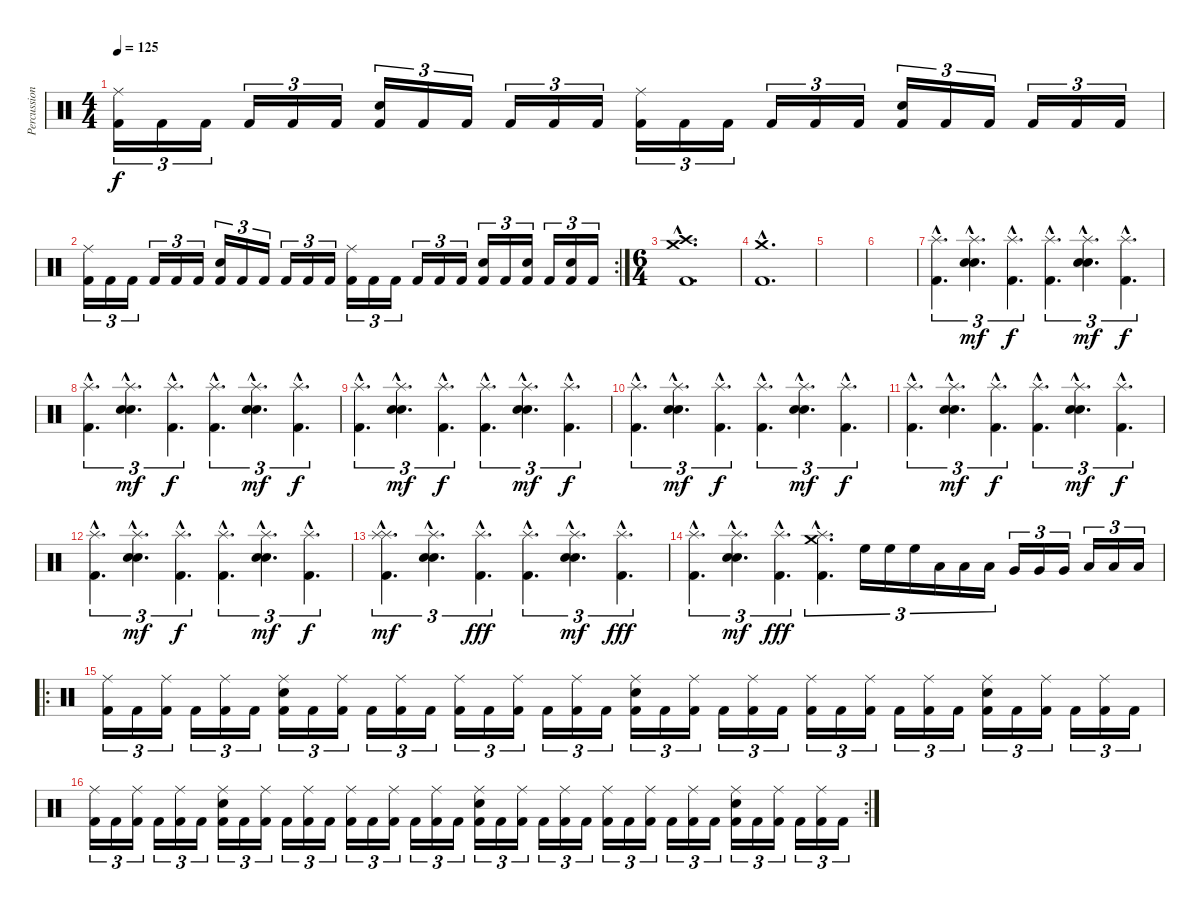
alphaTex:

\track ("Percussions" "Percussion") {instrument percussion}
\staff {score}
\articulation defaults
\ts (4 4)
\tempo 125
\clef neutral
\ks c
("Kick (hit) 2" "Ride (middle)").16{tu (3 2) dy f} "Kick (hit) 2".16{tu (3 2)} "Kick (hit) 2".16{tu (3 2)} "Kick (hit) 2".16{tu (3 2)} "Kick (hit) 2".16{tu (3 2)} "Kick (hit) 2".16{tu (3 2)} ("Kick (hit) 2" "Snare (hit) 2").16{tu (3 2)} "Kick (hit) 2".16{tu (3 2)} "Kick (hit) 2".16{tu (3 2)} "Kick (hit) 2".16{tu (3 2)} "Kick (hit) 2".16{tu (3 2)} "Kick (hit) 2".16{tu (3 2)} ("Kick (hit) 2" "Ride (middle)").16{tu (3 2)} "Kick (hit) 2".16{tu (3 2)} "Kick (hit) 2".16{tu (3 2)} "Kick (hit) 2".16{tu (3 2)} "Kick (hit) 2".16{tu (3 2)} "Kick (hit) 2".16{tu (3 2)} ("Kick (hit) 2" "Snare (hit) 2").16{tu (3 2)} "Kick (hit) 2".16{tu (3 2)} "Kick (hit) 2".16{tu (3 2)} "Kick (hit) 2".16{tu (3 2)} "Kick (hit) 2".16{tu (3 2)} "Kick (hit) 2".16{tu (3 2)} |
\rc 2
("Kick (hit) 2" "Ride (middle)").16{tu (3 2)} "Kick (hit) 2".16{tu (3 2)} "Kick (hit) 2".16{tu (3 2)} "Kick (hit) 2".16{tu (3 2)} "Kick (hit) 2".16{tu (3 2)} "Kick (hit) 2".16{tu (3 2)} ("Kick (hit) 2" "Snare (hit) 2").16{tu (3 2)} "Kick (hit) 2".16{tu (3 2)} "Kick (hit) 2".16{tu (3 2)} "Kick (hit) 2".16{tu (3 2)} "Kick (hit) 2".16{tu (3 2)} "Kick (hit) 2".16{tu (3 2)} ("Kick (hit) 2" "Ride (middle)").16{tu (3 2)} "Kick (hit) 2".16{tu (3 2)} "Kick (hit) 2".16{tu (3 2)} "Kick (hit) 2".16{tu (3 2)} "Kick (hit) 2".16{tu (3 2)} "Kick (hit) 2".16{tu (3 2)} ("Kick (hit) 2" "Snare (hit) 2").16{tu (3 2)} "Kick (hit) 2".16{tu (3 2)} ("Kick (hit) 2" "Snare (hit) 2").16{tu (3 2)} "Kick (hit) 2".16{tu (3 2)} ("Kick (hit) 2" "Snare (hit) 2").16{tu (3 2)} "Kick (hit) 2".16{tu (3 2)} |
\ts (6 4)
("Crash medium (hit)"{hac} "Crash high (hit)"{hac} "Kick (hit) 2"{hac}).1{d} |
("Kick (hit) 2"{hac} "Crash medium (hit)"{hac}).1{d} |
|
|
("Splash (hit)"{hac} "Kick (hit) 2"{hac}).4{d tu (3 2)} ("Splash (hit)"{hac} "Snare (hit) 2"{hac} "Hand Clap (hit)"{hac}).4{d tu (3 2) dy mf} ("Splash (hit)"{hac} "Kick (hit) 2"{hac}).4{d tu (3 2) dy f} ("Splash (hit)"{hac} "Kick (hit) 2"{hac}).4{d tu (3 2)} ("Splash (hit)"{hac} "Snare (hit) 2"{hac} "Hand Clap (hit)"{hac}).4{d tu (3 2) dy mf} ("Splash (hit)"{hac} "Kick (hit) 2"{hac}).4{d tu (3 2) dy f} |
("Splash (hit)"{hac} "Kick (hit) 2"{hac}).4{d tu (3 2)} ("Splash (hit)"{hac} "Snare (hit) 2"{hac} "Hand Clap (hit)"{hac}).4{d tu (3 2) dy mf} ("Splash (hit)"{hac} "Kick (hit) 2"{hac}).4{d tu (3 2) dy f} ("Splash (hit)"{hac} "Kick (hit) 2"{hac}).4{d tu (3 2)} ("Splash (hit)"{hac} "Snare (hit) 2"{hac} "Hand Clap (hit)"{hac}).4{d tu (3 2) dy mf} ("Splash (hit)"{hac} "Kick (hit) 2"{hac}).4{d tu (3 2) dy f} |
("Splash (hit)"{hac} "Kick (hit) 2"{hac}).4{d tu (3 2)} ("Splash (hit)"{hac} "Snare (hit) 2"{hac} "Hand Clap (hit)"{hac}).4{d tu (3 2) dy mf} ("Splash (hit)"{hac} "Kick (hit) 2"{hac}).4{d tu (3 2) dy f} ("Splash (hit)"{hac} "Kick (hit) 2"{hac}).4{d tu (3 2)} ("Splash (hit)"{hac} "Snare (hit) 2"{hac} "Hand Clap (hit)"{hac}).4{d tu (3 2) dy mf} ("Splash (hit)"{hac} "Kick (hit) 2"{hac}).4{d tu (3 2) dy f} |
("Splash (hit)"{hac} "Kick (hit) 2"{hac}).4{d tu (3 2)} ("Splash (hit)"{hac} "Snare (hit) 2"{hac} "Hand Clap (hit)"{hac}).4{d tu (3 2) dy mf} ("Splash (hit)"{hac} "Kick (hit) 2"{hac}).4{d tu (3 2) dy f} ("Splash (hit)"{hac} "Kick (hit) 2"{hac}).4{d tu (3 2)} ("Splash (hit)"{hac} "Snare (hit) 2"{hac} "Hand Clap (hit)"{hac}).4{d tu (3 2) dy mf} ("Splash (hit)"{hac} "Kick (hit) 2"{hac}).4{d tu (3 2) dy f} |
("Splash (hit)"{hac} "Kick (hit) 2"{hac}).4{d tu (3 2)} ("Splash (hit)"{hac} "Snare (hit) 2"{hac} "Hand Clap (hit)"{hac}).4{d tu (3 2) dy mf} ("Splash (hit)"{hac} "Kick (hit) 2"{hac}).4{d tu (3 2) dy f} ("Splash (hit)"{hac} "Kick (hit) 2"{hac}).4{d tu (3 2)} ("Splash (hit)"{hac} "Snare (hit) 2"{hac} "Hand Clap (hit)"{hac}).4{d tu (3 2) dy mf} ("Splash (hit)"{hac} "Kick (hit) 2"{hac}).4{d tu (3 2) dy f} |
("Splash (hit)"{hac} "Kick (hit) 2"{hac}).4{d tu (3 2)} ("Splash (hit)"{hac} "Snare (hit) 2"{hac} "Hand Clap (hit)"{hac}).4{d tu (3 2) dy mf} ("Splash (hit)"{hac} "Kick (hit) 2"{hac}).4{d tu (3 2) dy f} ("Splash (hit)"{hac} "Kick (hit) 2"{hac}).4{d tu (3 2)} ("Splash (hit)"{hac} "Snare (hit) 2"{hac} "Hand Clap (hit)"{hac}).4{d tu (3 2) dy mf} ("Splash (hit)"{hac} "Kick (hit) 2"{hac}).4{d tu (3 2) dy f} |
("Splash (hit)"{hac} "Kick (hit) 2"{hac} "Splash (hit)"{hac}).4{d tu (3 2) dy mf} ("Splash (hit)"{hac} "Snare (hit) 2"{hac} "Hand Clap (hit)"{hac}).4{d tu (3 2)} ("Splash (hit)"{hac} "Kick (hit) 2"{hac}).4{d tu (3 2) dy fff} ("Splash (hit)"{hac} "Kick (hit) 2"{hac}).4{d tu (3 2)} ("Splash (hit)"{hac} "Snare (hit) 2"{hac} "Hand Clap (hit)"{hac}).4{d tu (3 2) dy mf} ("Splash (hit)"{hac} "Kick (hit) 2"{hac}).4{d tu (3 2) dy fff} |
("Splash (hit)"{hac} "Kick (hit) 2"{hac}).4{d tu (3 2)} ("Splash (hit)"{hac} "Snare (hit) 2"{hac} "Hand Clap (hit)"{hac}).4{d tu (3 2) dy mf} ("Splash (hit)"{hac} "Kick (hit) 2"{hac}).4{d tu (3 2) dy fff} ("Splash (hit)"{hac} "Kick (hit) 2"{hac} "Crash medium (hit)"{hac}).4{d tu (3 2)} "High Floor Tom (hit)".16{tu (3 2)} "High Floor Tom (hit)".16{tu (3 2)} "High Floor Tom (hit)".16{tu (3 2)} "Low Tom (hit)".16{tu (3 2)} "Low Tom (hit)".16{tu (3 2)} "Low Tom (hit)".16{tu (3 2)} "Very Low Tom (hit)".16{tu (3 2)} "Very Low Tom (hit)".16{tu (3 2)} "Very Low Tom (hit)".16{tu (3 2)} "Low Floor Tom (hit)".16{tu (3 2)} "Low Floor Tom (hit)".16{tu (3 2)} "Low Floor Tom (hit)".16{tu (3 2)} |
\ro
("Ride (middle)" "Kick (hit) 2").16{tu (3 2)} "Kick (hit) 2".16{tu (3 2)} ("Ride (middle)" "Kick (hit) 2").16{tu (3 2)} "Kick (hit) 2".16{tu (3 2)} ("Ride (middle)" "Kick (hit) 2").16{tu (3 2)} "Kick (hit) 2".16{tu (3 2)} ("Ride (middle)" "Snare (hit) 2" "Kick (hit) 2").16{tu (3 2)} "Kick (hit) 2".16{tu (3 2)} ("Ride (middle)" "Kick (hit) 2").16{tu (3 2)} "Kick (hit) 2".16{tu (3 2)} ("Ride (middle)" "Kick (hit) 2").16{tu (3 2)} "Kick (hit) 2".16{tu (3 2)} ("Ride (middle)" "Kick (hit) 2").16{tu (3 2)} "Kick (hit) 2".16{tu (3 2)} ("Ride (middle)" "Kick (hit) 2").16{tu (3 2)} "Kick (hit) 2".16{tu (3 2)} ("Ride (middle)" "Kick (hit) 2").16{tu (3 2)} "Kick (hit) 2".16{tu (3 2)} ("Ride (middle)" "Snare (hit) 2" "Kick (hit) 2").16{tu (3 2)} "Kick (hit) 2".16{tu (3 2)} ("Ride (middle)" "Kick (hit) 2").16{tu (3 2)} "Kick (hit) 2".16{tu (3 2)} ("Ride (middle)" "Kick (hit) 2").16{tu (3 2)} "Kick (hit) 2".16{tu (3 2)} ("Ride (middle)" "Kick (hit) 2").16{tu (3 2)} "Kick (hit) 2".16{tu (3 2)} ("Ride (middle)" "Kick (hit) 2").16{tu (3 2)} "Kick (hit) 2".16{tu (3 2)} ("Ride (middle)" "Kick (hit) 2").16{tu (3 2)} "Kick (hit) 2".16{tu (3 2)} ("Ride (middle)" "Snare (hit) 2" "Kick (hit) 2").16{tu (3 2)} "Kick (hit) 2".16{tu (3 2)} ("Ride (middle)" "Kick (hit) 2").16{tu (3 2)} "Kick (hit) 2".16{tu (3 2)} ("Ride (middle)" "Kick (hit) 2").16{tu (3 2)} "Kick (hit) 2".16{tu (3 2)} |
\rc 2
("Ride (middle)" "Kick (hit) 2").16{tu (3 2)} "Kick (hit) 2".16{tu (3 2)} ("Ride (middle)" "Kick (hit) 2").16{tu (3 2)} "Kick (hit) 2".16{tu (3 2)} ("Ride (middle)" "Kick (hit) 2").16{tu (3 2)} "Kick (hit) 2".16{tu (3 2)} ("Ride (middle)" "Snare (hit) 2" "Kick (hit) 2").16{tu (3 2)} "Kick (hit) 2".16{tu (3 2)} ("Ride (middle)" "Kick (hit) 2").16{tu (3 2)} "Kick (hit) 2".16{tu (3 2)} ("Ride (middle)" "Kick (hit) 2").16{tu (3 2)} "Kick (hit) 2".16{tu (3 2)} ("Ride (middle)" "Kick (hit) 2").16{tu (3 2)} "Kick (hit) 2".16{tu (3 2)} ("Ride (middle)" "Kick (hit) 2").16{tu (3 2)} "Kick (hit) 2".16{tu (3 2)} ("Ride (middle)" "Kick (hit) 2").16{tu (3 2)} "Kick (hit) 2".16{tu (3 2)} ("Ride (middle)" "Snare (hit) 2" "Kick (hit) 2").16{tu (3 2)} "Kick (hit) 2".16{tu (3 2)} ("Ride (middle)" "Kick (hit) 2").16{tu (3 2)} "Kick (hit) 2".16{tu (3 2)} ("Ride (middle)" "Kick (hit) 2").16{tu (3 2)} "Kick (hit) 2".16{tu (3 2)} ("Ride (middle)" "Kick (hit) 2").16{tu (3 2)} "Kick (hit) 2".16{tu (3 2)} ("Ride (middle)" "Kick (hit) 2").16{tu (3 2)} "Kick (hit) 2".16{tu (3 2)} ("Ride (middle)" "Kick (hit) 2").16{tu (3 2)} "Kick (hit) 2".16{tu (3 2)} ("Ride (middle)" "Snare (hit) 2" "Kick (hit) 2").16{tu (3 2)} "Kick (hit) 2".16{tu (3 2)} ("Ride (middle)" "Kick (hit) 2").16{tu (3 2)} "Kick (hit) 2".16{tu (3 2)} ("Ride (middle)" "Kick (hit) 2").16{tu (3 2)} "Kick (hit) 2".16{tu (3 2)}
